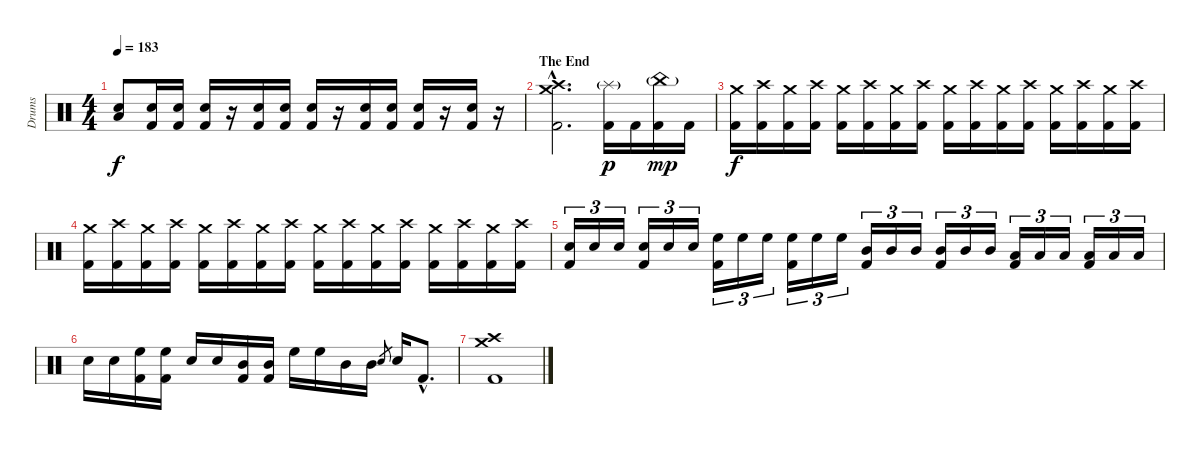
\track ("Drums" "Drums") {instrument percussion}
\staff {score}
\articulation defaults
\ts (4 4)
\tempo 183
\clef neutral
\ks c
("Electric Snare (hit)" "Low Floor Tom (hit)").8{dy f} ("Electric Snare (hit)" "Kick (hit) 2").16 ("Electric Snare (hit)" "Kick (hit) 2").16 ("Electric Snare (hit)" "Kick (hit) 2").16 r.16 ("Electric Snare (hit)" "Kick (hit) 2").16 ("Electric Snare (hit)" "Kick (hit) 2").16 ("Electric Snare (hit)" "Kick (hit) 2").16 r.16 ("Electric Snare (hit)" "Kick (hit) 2").16 ("Electric Snare (hit)" "Kick (hit) 2").16 ("Electric Snare (hit)" "Kick (hit) 2").16 r.16 ("Electric Snare (hit)" "Kick (hit) 2").16 r.16 |
\section ("" "The End")
("Crash high (hit)"{hac} "Crash medium (hit)"{hac} "Kick (hit) 2"{hac}).2{d} ("Splash (hit)"{g} "Kick (hit) 2").16{dy p} "Kick (hit) 2".16 ("China (hit)"{g} "Kick (hit) 2").16{dy mp} "Kick (hit) 2".16 |
("Crash medium (hit)" "Kick (hit) 2").16{dy f volume 10} ("Crash high (hit)" "Kick (hit) 2").16 ("Crash medium (hit)" "Kick (hit) 2").16 ("Crash high (hit)" "Kick (hit) 2").16 ("Crash medium (hit)" "Kick (hit) 2").16 ("Crash high (hit)" "Kick (hit) 2").16 ("Crash medium (hit)" "Kick (hit) 2").16 ("Crash high (hit)" "Kick (hit) 2").16 ("Crash medium (hit)" "Kick (hit) 2").16 ("Crash high (hit)" "Kick (hit) 2").16 ("Crash medium (hit)" "Kick (hit) 2").16 ("Crash high (hit)" "Kick (hit) 2").16 ("Crash medium (hit)" "Kick (hit) 2").16{volume 15} ("Crash high (hit)" "Kick (hit) 2").16 ("Crash medium (hit)" "Kick (hit) 2").16 ("Crash high (hit)" "Kick (hit) 2").16 |
("Crash medium (hit)" "Kick (hit) 2").16 ("Crash high (hit)" "Kick (hit) 2").16 ("Crash medium (hit)" "Kick (hit) 2").16 ("Crash high (hit)" "Kick (hit) 2").16 ("Crash medium (hit)" "Kick (hit) 2").16 ("Crash high (hit)" "Kick (hit) 2").16 ("Crash medium (hit)" "Kick (hit) 2").16 ("Crash high (hit)" "Kick (hit) 2").16 ("Crash medium (hit)" "Kick (hit) 2").16 ("Crash high (hit)" "Kick (hit) 2").16 ("Crash medium (hit)" "Kick (hit) 2").16 ("Crash high (hit)" "Kick (hit) 2").16 ("Crash medium (hit)" "Kick (hit) 2").16 ("Crash high (hit)" "Kick (hit) 2").16 ("Crash medium (hit)" "Kick (hit) 2").16 ("Crash high (hit)" "Kick (hit) 2").16 |
("Electric Snare (hit)" "Kick (hit) 2").16{tu (3 2)} "Electric Snare (hit)".16{tu (3 2)} "Electric Snare (hit)".16{tu (3 2)} ("Electric Snare (hit)" "Kick (hit) 2").16{tu (3 2)} "Electric Snare (hit)".16{tu (3 2)} "Electric Snare (hit)".16{tu (3 2)} ("High Floor Tom (hit)" "Kick (hit) 2").16{tu (3 2)} "High Floor Tom (hit)".16{tu (3 2)} "High Floor Tom (hit)".16{tu (3 2)} ("High Floor Tom (hit)" "Kick (hit) 2").16{tu (3 2)} "High Floor Tom (hit)".16{tu (3 2)} "High Floor Tom (hit)".16{tu (3 2)} ("Mid Tom (hit)" "Kick (hit) 2").16{tu (3 2)} "Mid Tom (hit)".16{tu (3 2)} "Mid Tom (hit)".16{tu (3 2)} ("Mid Tom (hit)" "Kick (hit) 2").16{tu (3 2)} "Mid Tom (hit)".16{tu (3 2)} "Mid Tom (hit)".16{tu (3 2)} ("Low Tom (hit)" "Kick (hit) 2").16{tu (3 2)} "Low Tom (hit)".16{tu (3 2)} "Low Tom (hit)".16{tu (3 2)} ("Low Tom (hit)" "Kick (hit) 2").16{tu (3 2)} "Low Tom (hit)".16{tu (3 2)} "Low Tom (hit)".16{tu (3 2)} |
"Electric Snare (hit)".16 "Electric Snare (hit)".16 ("High Floor Tom (hit)" "Kick (hit) 2").16 ("High Floor Tom (hit)" "Kick (hit) 2").16 "Electric Snare (hit)".16 "Electric Snare (hit)".16 ("Mid Tom (hit)" "Kick (hit) 2").16 ("Mid Tom (hit)" "Kick (hit) 2").16 "High Floor Tom (hit)".16 "High Floor Tom (hit)".16 "Mid Tom (hit)".16 "Mid Tom (hit)".16 "Electric Snare (hit)".8{gr} "Electric Snare (hit)".16 "Kick (hit) 2"{hac}.8{d} |
("Crash high (hit)" "Crash medium (hit)" "Kick (hit) 2").1
